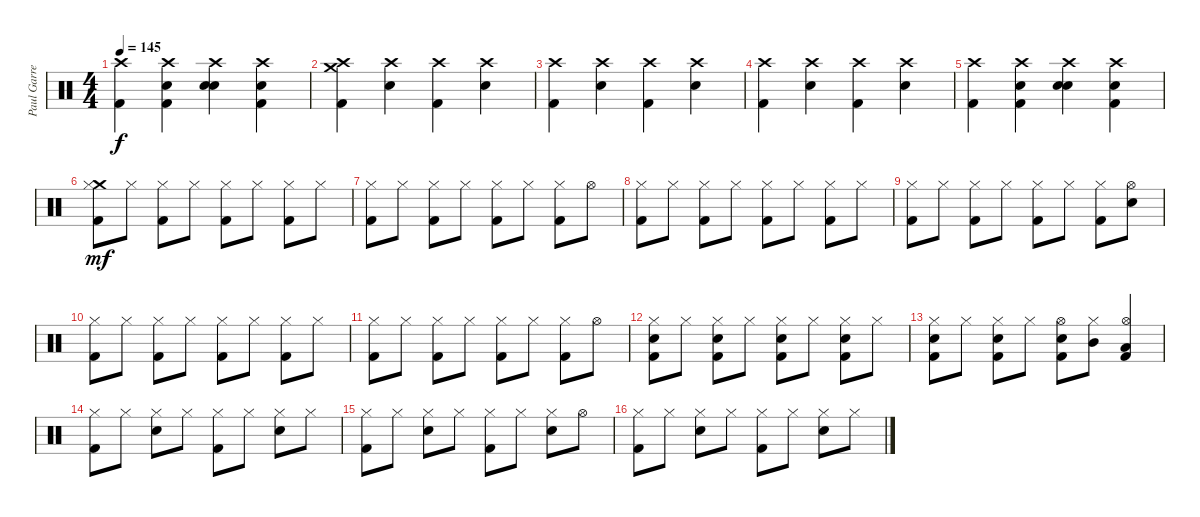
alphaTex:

\track ("Paul Garred (Percussion)" "Paul Garre") {instrument percussion}
\staff {score}
\articulation defaults
\ts (4 4)
\tempo 145
\clef neutral
\ks c
("Crash high (hit)" "Kick (hit) 2").4{dy f} ("Crash high (hit)" "Snare (hit) 2" "Kick (hit) 2").4 ("Crash high (hit)" "Snare (hit) 2" "Snare (hit) 2").4 ("Crash high (hit)" "Snare (hit) 2" "Kick (hit) 2").4 |
("Crash medium (hit)" "Crash high (hit)" "Kick (hit) 2").4 ("Crash high (hit)" "Snare (hit) 2").4 ("Crash high (hit)" "Kick (hit) 2").4 ("Crash high (hit)" "Snare (hit) 2").4 |
("Crash high (hit)" "Kick (hit) 2").4 ("Crash high (hit)" "Snare (hit) 2").4 ("Crash high (hit)" "Kick (hit) 2").4 ("Crash high (hit)" "Snare (hit) 2").4 |
("Crash high (hit)" "Kick (hit) 2").4 ("Crash high (hit)" "Snare (hit) 2").4 ("Crash high (hit)" "Kick (hit) 2").4 ("Crash high (hit)" "Snare (hit) 2").4 |
("Crash high (hit)" "Kick (hit) 2").4 ("Crash high (hit)" "Snare (hit) 2" "Kick (hit) 2").4 ("Crash high (hit)" "Snare (hit) 2" "Snare (hit) 2").4 ("Crash high (hit)" "Snare (hit) 2" "Kick (hit) 2").4 |
("Crash medium (hit)" "Hi-Hat (closed)" "Kick (hit) 2").8{dy mf} "Hi-Hat (closed)".8 ("Hi-Hat (closed)" "Kick (hit) 2").8 "Hi-Hat (closed)".8 ("Hi-Hat (closed)" "Kick (hit) 2").8 "Hi-Hat (closed)".8 ("Hi-Hat (closed)" "Kick (hit) 2").8 "Hi-Hat (closed)".8 |
("Hi-Hat (closed)" "Kick (hit) 2").8 "Hi-Hat (closed)".8 ("Hi-Hat (closed)" "Kick (hit) 2").8 "Hi-Hat (closed)".8 ("Hi-Hat (closed)" "Kick (hit) 2").8 "Hi-Hat (closed)".8 ("Hi-Hat (closed)" "Kick (hit) 2").8 "Hi-Hat (open)".8 |
("Hi-Hat (closed)" "Kick (hit) 2").8 "Hi-Hat (closed)".8 ("Hi-Hat (closed)" "Kick (hit) 2").8 "Hi-Hat (closed)".8 ("Hi-Hat (closed)" "Kick (hit) 2").8 "Hi-Hat (closed)".8 ("Hi-Hat (closed)" "Kick (hit) 2").8 "Hi-Hat (closed)".8 |
("Hi-Hat (closed)" "Kick (hit) 2").8 "Hi-Hat (closed)".8 ("Hi-Hat (closed)" "Kick (hit) 2").8 "Hi-Hat (closed)".8 ("Hi-Hat (closed)" "Kick (hit) 2").8 "Hi-Hat (closed)".8 ("Hi-Hat (closed)" "Kick (hit) 2").8 ("Hi-Hat (open)" "Snare (hit) 2").8 |
("Hi-Hat (closed)" "Kick (hit) 2").8 "Hi-Hat (closed)".8 ("Hi-Hat (closed)" "Kick (hit) 2").8 "Hi-Hat (closed)".8 ("Hi-Hat (closed)" "Kick (hit) 2").8 "Hi-Hat (closed)".8 ("Hi-Hat (closed)" "Kick (hit) 2").8 "Hi-Hat (closed)".8 |
("Hi-Hat (closed)" "Kick (hit) 2").8 "Hi-Hat (closed)".8 ("Hi-Hat (closed)" "Kick (hit) 2").8 "Hi-Hat (closed)".8 ("Hi-Hat (closed)" "Kick (hit) 2").8 "Hi-Hat (closed)".8 ("Hi-Hat (closed)" "Kick (hit) 2").8 "Hi-Hat (open)".8 |
("Hi-Hat (closed)" "Snare (hit) 2" "Kick (hit) 2").8 "Hi-Hat (closed)".8 ("Hi-Hat (closed)" "Snare (hit) 2" "Kick (hit) 2").8 "Hi-Hat (closed)".8 ("Hi-Hat (closed)" "Snare (hit) 2" "Kick (hit) 2").8 "Hi-Hat (closed)".8 ("Hi-Hat (closed)" "Snare (hit) 2" "Kick (hit) 2").8 "Hi-Hat (closed)".8 |
("Hi-Hat (closed)" "Snare (hit) 2" "Kick (hit) 2").8 "Hi-Hat (closed)".8 ("Hi-Hat (closed)" "Snare (hit) 2" "Kick (hit) 2").8 "Hi-Hat (closed)".8 ("Hi-Hat (open)" "Snare (hit) 2" "Kick (hit) 2").8 ("Hi-Hat (closed)" "Mid Tom (hit)").8 ("Hi-Hat (open)" "Low Tom (hit)" "Kick (hit) 2").4 |
("Hi-Hat (closed)" "Kick (hit) 2").8 "Hi-Hat (closed)".8 ("Hi-Hat (closed)" "Snare (hit) 2").8 "Hi-Hat (closed)".8 ("Hi-Hat (closed)" "Kick (hit) 2").8 "Hi-Hat (closed)".8 ("Hi-Hat (closed)" "Snare (hit) 2").8 "Hi-Hat (closed)".8 |
("Hi-Hat (closed)" "Kick (hit) 2").8 "Hi-Hat (closed)".8 ("Hi-Hat (closed)" "Snare (hit) 2").8 "Hi-Hat (closed)".8 ("Hi-Hat (closed)" "Kick (hit) 2").8 "Hi-Hat (closed)".8 ("Hi-Hat (closed)" "Snare (hit) 2").8 "Hi-Hat (open)".8 |
("Hi-Hat (closed)" "Kick (hit) 2").8 "Hi-Hat (closed)".8 ("Hi-Hat (closed)" "Snare (hit) 2").8 "Hi-Hat (closed)".8 ("Hi-Hat (closed)" "Kick (hit) 2").8 "Hi-Hat (closed)".8 ("Hi-Hat (closed)" "Snare (hit) 2").8 "Hi-Hat (closed)".8
